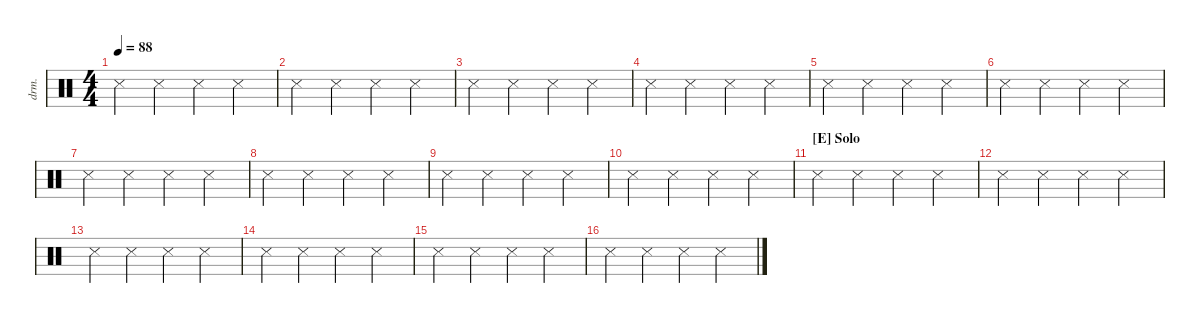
\defaultSystemsLayout 4
\hideDynamics
\bracketExtendMode nobrackets
\otherSystemsTrackNameOrientation horizontal
\track ("Drumkit" "drm.") {instrument percussion}
\staff {score}
\articulation defaults
\ts (4 4)
\tempo 88
\clef neutral
\ks c "Metronome (hit)".4{dy mf beam Down} "Metronome (hit)".4{beam Down} "Metronome (hit)".4{beam Down} "Metronome (hit)".4{beam Down}
|
"Metronome (hit)".4{beam Down} "Metronome (hit)".4{beam Down} "Metronome (hit)".4{beam Down} "Metronome (hit)".4{beam Down} |
"Metronome (hit)".4{beam Down} "Metronome (hit)".4{beam Down} "Metronome (hit)".4{beam Down} "Metronome (hit)".4{beam Down} |
"Metronome (hit)".4{beam Down} "Metronome (hit)".4{beam Down} "Metronome (hit)".4{beam Down} "Metronome (hit)".4{beam Down} |
"Metronome (hit)".4{beam Down} "Metronome (hit)".4{beam Down} "Metronome (hit)".4{beam Down} "Metronome (hit)".4{beam Down} |
"Metronome (hit)".4{beam Down} "Metronome (hit)".4{beam Down} "Metronome (hit)".4{beam Down} "Metronome (hit)".4{beam Down} |
"Metronome (hit)".4{beam Down} "Metronome (hit)".4{beam Down} "Metronome (hit)".4{beam Down} "Metronome (hit)".4{beam Down} |
"Metronome (hit)".4{beam Down} "Metronome (hit)".4{beam Down} "Metronome (hit)".4{beam Down} "Metronome (hit)".4{beam Down} |
"Metronome (hit)".4{beam Down} "Metronome (hit)".4{beam Down} "Metronome (hit)".4{beam Down} "Metronome (hit)".4{beam Down} |
"Metronome (hit)".4{beam Down} "Metronome (hit)".4{beam Down} "Metronome (hit)".4{beam Down} "Metronome (hit)".4{beam Down} |
\section ("E" "Solo")
"Metronome (hit)".4{beam Down} "Metronome (hit)".4{beam Down} "Metronome (hit)".4{beam Down} "Metronome (hit)".4{beam Down} |
"Metronome (hit)".4{beam Down} "Metronome (hit)".4{beam Down} "Metronome (hit)".4{beam Down} "Metronome (hit)".4{beam Down} |
"Metronome (hit)".4{beam Down} "Metronome (hit)".4{beam Down} "Metronome (hit)".4{beam Down} "Metronome (hit)".4{beam Down} |
"Metronome (hit)".4{beam Down} "Metronome (hit)".4{beam Down} "Metronome (hit)".4{beam Down} "Metronome (hit)".4{beam Down} |
"Metronome (hit)".4{beam Down} "Metronome (hit)".4{beam Down} "Metronome (hit)".4{beam Down} "Metronome (hit)".4{beam Down} |
"Metronome (hit)".4{beam Down} "Metronome (hit)".4{beam Down} "Metronome (hit)".4{beam Down} "Metronome (hit)".4{beam Down}
